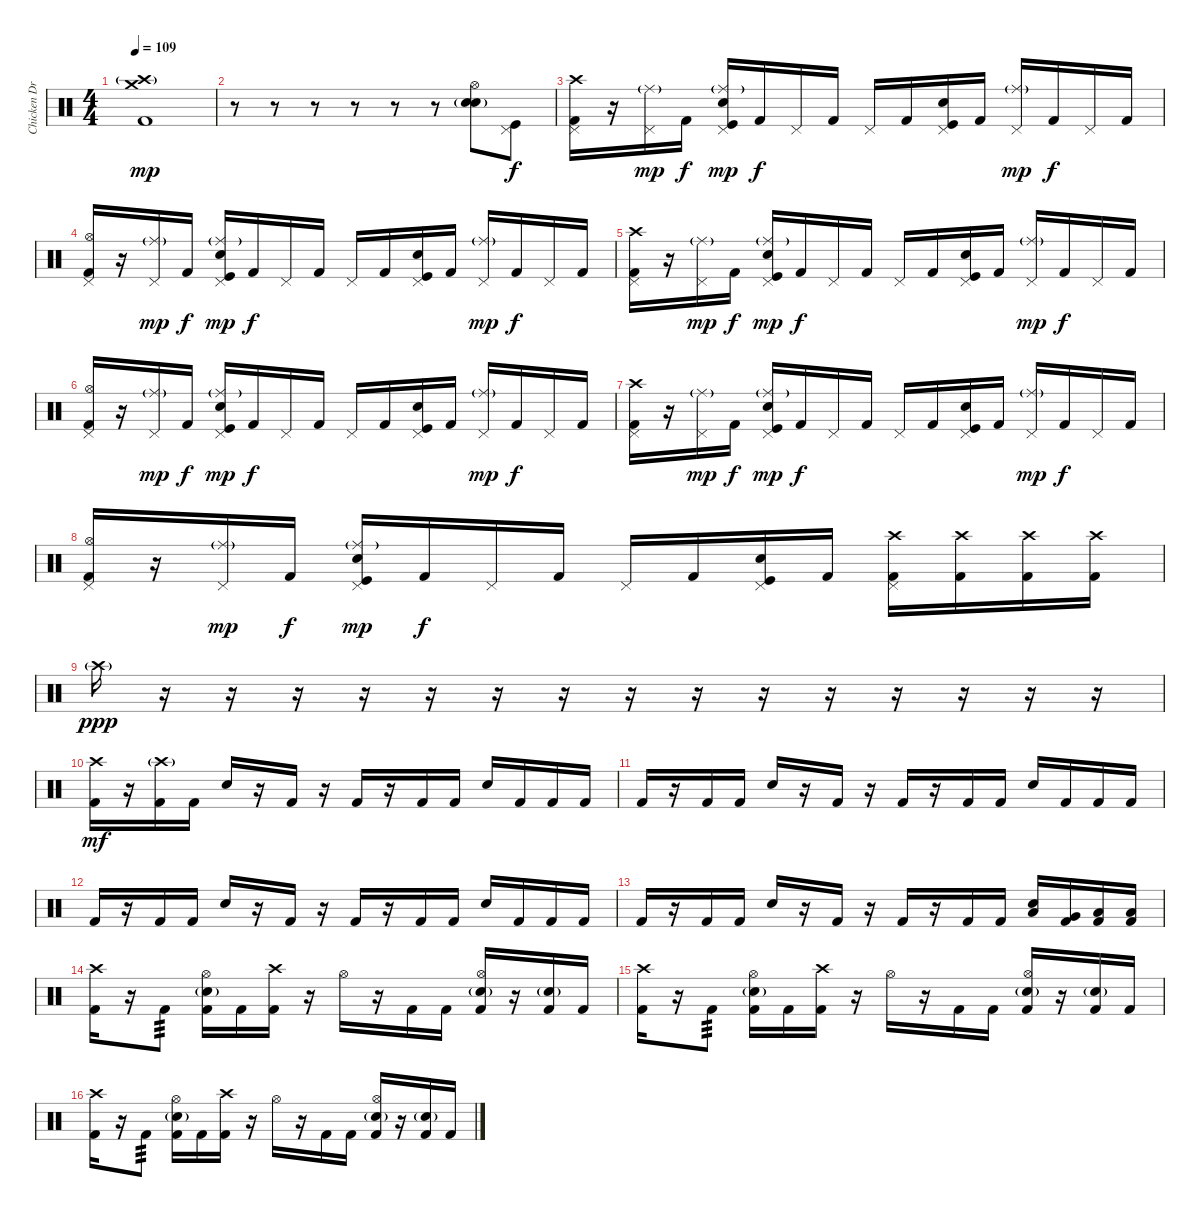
\track ("Chicken Drum" "Chicken Dr") {instrument percussion}
\staff {score}
\articulation defaults
\ts (4 4)
\tempo 109
\clef neutral
\ks c
("Crash medium (hit)" "Crash high (hit)"{g} "Kick (hit) 2").1{dy mp} |
r.8 r.8 r.8 r.8 r.8 r.8 ("Hi-Hat (open)" "Snare (hit) 2"{g} "Electric Snare (hit)").8 ("Pedal Hi-Hat (hit)" "Kick (hit)").8{dy f} |
("Crash high (hit)" "Pedal Hi-Hat (hit)" "Kick (hit) 2").16 r.16 ("Ride (middle)"{g} "Pedal Hi-Hat (hit)").16{dy mp} "Kick (hit) 2".16{dy f} ("Ride (middle)"{g} "Pedal Hi-Hat (hit)" "Snare (hit) 2" "Kick (hit)").16{dy mp} "Kick (hit) 2".16{dy f} "Pedal Hi-Hat (hit)".16 "Kick (hit) 2".16 "Pedal Hi-Hat (hit)".16 "Kick (hit) 2".16 ("Pedal Hi-Hat (hit)" "Snare (hit) 2" "Kick (hit)").16 "Kick (hit) 2".16 ("Ride (middle)"{g} "Pedal Hi-Hat (hit)").16{dy mp} "Kick (hit) 2".16{dy f} "Pedal Hi-Hat (hit)".16 "Kick (hit) 2".16 |
("Hi-Hat (open)" "Pedal Hi-Hat (hit)" "Kick (hit) 2").16 r.16 ("Ride (middle)"{g} "Pedal Hi-Hat (hit)").16{dy mp} "Kick (hit) 2".16{dy f} ("Ride (middle)"{g} "Pedal Hi-Hat (hit)" "Snare (hit) 2" "Kick (hit)").16{dy mp} "Kick (hit) 2".16{dy f} "Pedal Hi-Hat (hit)".16 "Kick (hit) 2".16 "Pedal Hi-Hat (hit)".16 "Kick (hit) 2".16 ("Pedal Hi-Hat (hit)" "Snare (hit) 2" "Kick (hit)").16 "Kick (hit) 2".16 ("Ride (middle)"{g} "Pedal Hi-Hat (hit)").16{dy mp} "Kick (hit) 2".16{dy f} "Pedal Hi-Hat (hit)".16 "Kick (hit) 2".16 |
("Crash high (hit)" "Pedal Hi-Hat (hit)" "Kick (hit) 2").16 r.16 ("Ride (middle)"{g} "Pedal Hi-Hat (hit)").16{dy mp} "Kick (hit) 2".16{dy f} ("Ride (middle)"{g} "Pedal Hi-Hat (hit)" "Snare (hit) 2" "Kick (hit)").16{dy mp} "Kick (hit) 2".16{dy f} "Pedal Hi-Hat (hit)".16 "Kick (hit) 2".16 "Pedal Hi-Hat (hit)".16 "Kick (hit) 2".16 ("Pedal Hi-Hat (hit)" "Snare (hit) 2" "Kick (hit)").16 "Kick (hit) 2".16 ("Ride (middle)"{g} "Pedal Hi-Hat (hit)").16{dy mp} "Kick (hit) 2".16{dy f} "Pedal Hi-Hat (hit)".16 "Kick (hit) 2".16 |
("Hi-Hat (open)" "Pedal Hi-Hat (hit)" "Kick (hit) 2").16 r.16 ("Ride (middle)"{g} "Pedal Hi-Hat (hit)").16{dy mp} "Kick (hit) 2".16{dy f} ("Ride (middle)"{g} "Pedal Hi-Hat (hit)" "Snare (hit) 2" "Kick (hit)").16{dy mp} "Kick (hit) 2".16{dy f} "Pedal Hi-Hat (hit)".16 "Kick (hit) 2".16 "Pedal Hi-Hat (hit)".16 "Kick (hit) 2".16 ("Pedal Hi-Hat (hit)" "Snare (hit) 2" "Kick (hit)").16 "Kick (hit) 2".16 ("Ride (middle)"{g} "Pedal Hi-Hat (hit)").16{dy mp} "Kick (hit) 2".16{dy f} "Pedal Hi-Hat (hit)".16 "Kick (hit) 2".16 |
("Crash high (hit)" "Pedal Hi-Hat (hit)" "Kick (hit) 2").16 r.16 ("Ride (middle)"{g} "Pedal Hi-Hat (hit)").16{dy mp} "Kick (hit) 2".16{dy f} ("Ride (middle)"{g} "Pedal Hi-Hat (hit)" "Snare (hit) 2" "Kick (hit)").16{dy mp} "Kick (hit) 2".16{dy f} "Pedal Hi-Hat (hit)".16 "Kick (hit) 2".16 "Pedal Hi-Hat (hit)".16 "Kick (hit) 2".16 ("Pedal Hi-Hat (hit)" "Snare (hit) 2" "Kick (hit)").16 "Kick (hit) 2".16 ("Ride (middle)"{g} "Pedal Hi-Hat (hit)").16{dy mp} "Kick (hit) 2".16{dy f} "Pedal Hi-Hat (hit)".16 "Kick (hit) 2".16 |
("Hi-Hat (open)" "Pedal Hi-Hat (hit)" "Kick (hit) 2").16 r.16 ("Ride (middle)"{g} "Pedal Hi-Hat (hit)").16{dy mp} "Kick (hit) 2".16{dy f} ("Ride (middle)"{g} "Pedal Hi-Hat (hit)" "Snare (hit) 2" "Kick (hit)").16{dy mp} "Kick (hit) 2".16{dy f} "Pedal Hi-Hat (hit)".16 "Kick (hit) 2".16 "Pedal Hi-Hat (hit)".16 "Kick (hit) 2".16 ("Pedal Hi-Hat (hit)" "Snare (hit) 2" "Kick (hit)").16 "Kick (hit) 2".16 ("Crash high (hit)" "Pedal Hi-Hat (hit)" "Kick (hit) 2").16 ("Crash high (hit)" "Kick (hit) 2").16 ("Crash high (hit)" "Kick (hit) 2").16 ("Crash high (hit)" "Kick (hit) 2").16 |
"Crash high (hit)"{g}.16{dy ppp} r.16 r.16 r.16 r.16 r.16 r.16 r.16 r.16 r.16 r.16 r.16 r.16 r.16 r.16 r.16 |
("Crash high (hit)" "Kick (hit) 2").16{dy mf} r.16 ("Crash high (hit)"{g} "Kick (hit) 2").16 "Kick (hit) 2".16 "Snare (hit) 2".16 r.16 "Kick (hit) 2".16 r.16 "Kick (hit) 2".16 r.16 "Kick (hit) 2".16 "Kick (hit) 2".16 "Snare (hit) 2".16 "Kick (hit) 2".16 "Kick (hit) 2".16 "Kick (hit) 2".16 |
"Kick (hit) 2".16 r.16 "Kick (hit) 2".16 "Kick (hit) 2".16 "Snare (hit) 2".16 r.16 "Kick (hit) 2".16 r.16 "Kick (hit) 2".16 r.16 "Kick (hit) 2".16 "Kick (hit) 2".16 "Snare (hit) 2".16 "Kick (hit) 2".16 "Kick (hit) 2".16 "Kick (hit) 2".16 |
"Kick (hit) 2".16 r.16 "Kick (hit) 2".16 "Kick (hit) 2".16 "Snare (hit) 2".16 r.16 "Kick (hit) 2".16 r.16 "Kick (hit) 2".16 r.16 "Kick (hit) 2".16 "Kick (hit) 2".16 "Snare (hit) 2".16 "Kick (hit) 2".16 "Kick (hit) 2".16 "Kick (hit) 2".16 |
"Kick (hit) 2".16 r.16 "Kick (hit) 2".16 "Kick (hit) 2".16 "Snare (hit) 2".16 r.16 "Kick (hit) 2".16 r.16 "Kick (hit) 2".16 r.16 "Kick (hit) 2".16 "Kick (hit) 2".16 ("Low Tom (hit)" "Snare (hit) 2").16 ("Very Low Tom (hit)" "Kick (hit) 2").16 ("Low Floor Tom (hit)" "Kick (hit) 2").16 ("Low Floor Tom (hit)" "Kick (hit) 2").16 |
("Crash high (hit)" "Kick (hit) 2").16 r.16 "Kick (hit) 2".8{tp 3} ("Hi-Hat (open)" "Snare (hit) 2"{g} "Kick (hit) 2").16 "Kick (hit) 2".16 ("Crash high (hit)" "Kick (hit) 2").16 r.16 "Hi-Hat (open)".16 r.16 "Kick (hit) 2".16 "Kick (hit) 2".16 ("Hi-Hat (open)" "Snare (hit) 2"{g} "Kick (hit) 2").16 r.16 ("Snare (hit) 2"{g} "Kick (hit) 2").16 "Kick (hit) 2".16 |
("Crash high (hit)" "Kick (hit) 2").16 r.16 "Kick (hit) 2".8{tp 3} ("Hi-Hat (open)" "Snare (hit) 2"{g} "Kick (hit) 2").16 "Kick (hit) 2".16 ("Crash high (hit)" "Kick (hit) 2").16 r.16 "Hi-Hat (open)".16 r.16 "Kick (hit) 2".16 "Kick (hit) 2".16 ("Hi-Hat (open)" "Snare (hit) 2"{g} "Kick (hit) 2").16 r.16 ("Snare (hit) 2"{g} "Kick (hit) 2").16 "Kick (hit) 2".16 |
("Crash high (hit)" "Kick (hit) 2").16 r.16 "Kick (hit) 2".8{tp 3} ("Hi-Hat (open)" "Snare (hit) 2"{g} "Kick (hit) 2").16 "Kick (hit) 2".16 ("Crash high (hit)" "Kick (hit) 2").16 r.16 "Hi-Hat (open)".16 r.16 "Kick (hit) 2".16 "Kick (hit) 2".16 ("Hi-Hat (open)" "Snare (hit) 2"{g} "Kick (hit) 2").16 r.16 ("Snare (hit) 2"{g} "Kick (hit) 2").16 "Kick (hit) 2".16
